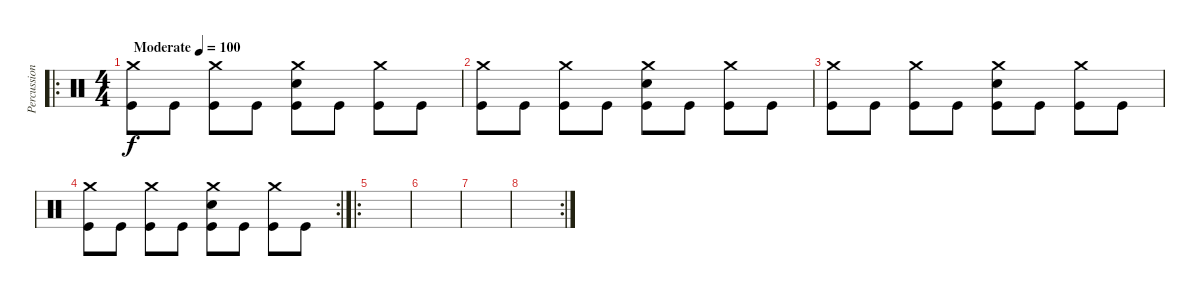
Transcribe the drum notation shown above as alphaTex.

\track ("Percussion" "Percussion") {instrument percussion}
\staff {score}
\articulation defaults
\ro
\ts (4 4)
\tempo (100 "Moderate")
\clef neutral
\ks c
("Crash medium (hit)" "Kick (hit)").8{dy f} "Kick (hit)".8 ("Crash medium (hit)" "Kick (hit)").8 "Kick (hit)".8 ("Crash medium (hit)" "Snare (hit) 2" "Kick (hit)").8 "Kick (hit)".8 ("Crash medium (hit)" "Kick (hit)").8 "Kick (hit)".8 |
("Crash medium (hit)" "Kick (hit)").8 "Kick (hit)".8 ("Crash medium (hit)" "Kick (hit)").8 "Kick (hit)".8 ("Crash medium (hit)" "Snare (hit) 2" "Kick (hit)").8 "Kick (hit)".8 ("Crash medium (hit)" "Kick (hit)").8 "Kick (hit)".8 |
("Crash medium (hit)" "Kick (hit)").8 "Kick (hit)".8 ("Crash medium (hit)" "Kick (hit)").8 "Kick (hit)".8 ("Crash medium (hit)" "Snare (hit) 2" "Kick (hit)").8 "Kick (hit)".8 ("Crash medium (hit)" "Kick (hit)").8 "Kick (hit)".8 |
\rc 2
("Crash medium (hit)" "Kick (hit)").8 "Kick (hit)".8 ("Crash medium (hit)" "Kick (hit)").8 "Kick (hit)".8 ("Crash medium (hit)" "Snare (hit) 2" "Kick (hit)").8 "Kick (hit)".8 ("Crash medium (hit)" "Kick (hit)").8 "Kick (hit)".8 |
\ro
|
|
|
\rc 2
